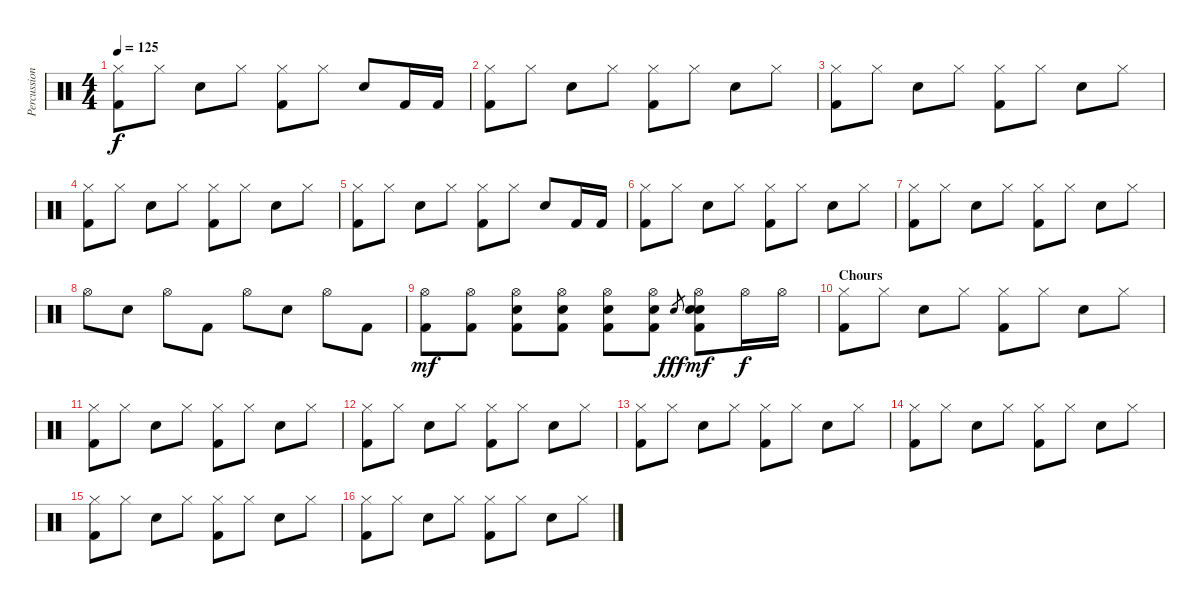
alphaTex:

\track ("Percussion" "Percussion") {instrument percussion}
\staff {score}
\articulation defaults
\ts (4 4)
\tempo 125
\clef neutral
\ks c
("Hi-Hat (closed)" "Kick (hit) 2").8{dy f} "Hi-Hat (closed)".8 "Electric Snare (hit)".8 "Hi-Hat (closed)".8 ("Hi-Hat (closed)" "Kick (hit) 2").8 "Hi-Hat (closed)".8 "Electric Snare (hit)".8 "Kick (hit) 2".16 "Kick (hit) 2".16 |
("Hi-Hat (closed)" "Kick (hit) 2").8 "Hi-Hat (closed)".8 "Electric Snare (hit)".8 "Hi-Hat (closed)".8 ("Hi-Hat (closed)" "Kick (hit) 2").8 "Hi-Hat (closed)".8 "Electric Snare (hit)".8 "Hi-Hat (closed)".8 |
("Hi-Hat (closed)" "Kick (hit) 2").8 "Hi-Hat (closed)".8 "Electric Snare (hit)".8 "Hi-Hat (closed)".8 ("Hi-Hat (closed)" "Kick (hit) 2").8 "Hi-Hat (closed)".8 "Electric Snare (hit)".8 "Hi-Hat (closed)".8 |
("Hi-Hat (closed)" "Kick (hit) 2").8 "Hi-Hat (closed)".8 "Electric Snare (hit)".8 "Hi-Hat (closed)".8 ("Hi-Hat (closed)" "Kick (hit) 2").8 "Hi-Hat (closed)".8 "Electric Snare (hit)".8 "Hi-Hat (closed)".8 |
("Hi-Hat (closed)" "Kick (hit) 2").8 "Hi-Hat (closed)".8 "Electric Snare (hit)".8 "Hi-Hat (closed)".8 ("Hi-Hat (closed)" "Kick (hit) 2").8 "Hi-Hat (closed)".8 "Electric Snare (hit)".8 "Kick (hit) 2".16 "Kick (hit) 2".16 |
("Hi-Hat (closed)" "Kick (hit) 2").8 "Hi-Hat (closed)".8 "Electric Snare (hit)".8 "Hi-Hat (closed)".8 ("Hi-Hat (closed)" "Kick (hit) 2").8 "Hi-Hat (closed)".8 "Electric Snare (hit)".8 "Hi-Hat (closed)".8 |
("Hi-Hat (closed)" "Kick (hit) 2").8 "Hi-Hat (closed)".8 "Electric Snare (hit)".8 "Hi-Hat (closed)".8 ("Hi-Hat (closed)" "Kick (hit) 2").8 "Hi-Hat (closed)".8 "Electric Snare (hit)".8 "Hi-Hat (closed)".8 |
"Hi-Hat (open)".8 "Electric Snare (hit)".8 "Hi-Hat (open)".8 "Kick (hit) 2".8 "Hi-Hat (open)".8 "Electric Snare (hit)".8 "Hi-Hat (open)".8 "Kick (hit) 2".8 |
("Hi-Hat (open)" "Kick (hit) 2").8{dy mf} ("Hi-Hat (open)" "Kick (hit) 2").8 ("Electric Snare (hit)" "Hi-Hat (open)" "Kick (hit) 2").8 ("Electric Snare (hit)" "Hi-Hat (open)" "Kick (hit) 2").8 ("Electric Snare (hit)" "Hi-Hat (open)" "Kick (hit) 2").8 ("Electric Snare (hit)" "Hi-Hat (open)" "Kick (hit) 2").8 "Electric Snare (hit)".8{gr dy fff} ("Electric Snare (hit)" "Electric Snare (hit)" "Hi-Hat (open)" "Kick (hit) 2").8{dy mf} "Hi-Hat (open)".16{dy f} "Hi-Hat (open)".16 |
\section ("" "Chours")
("Hi-Hat (closed)" "Kick (hit) 2").8 "Hi-Hat (closed)".8 "Electric Snare (hit)".8 "Hi-Hat (closed)".8 ("Hi-Hat (closed)" "Kick (hit) 2").8 "Hi-Hat (closed)".8 "Electric Snare (hit)".8 "Hi-Hat (closed)".8 |
("Hi-Hat (closed)" "Kick (hit) 2").8 "Hi-Hat (closed)".8 "Electric Snare (hit)".8 "Hi-Hat (closed)".8 ("Hi-Hat (closed)" "Kick (hit) 2").8 "Hi-Hat (closed)".8 "Electric Snare (hit)".8 "Hi-Hat (closed)".8 |
("Hi-Hat (closed)" "Kick (hit) 2").8 "Hi-Hat (closed)".8 "Electric Snare (hit)".8 "Hi-Hat (closed)".8 ("Hi-Hat (closed)" "Kick (hit) 2").8 "Hi-Hat (closed)".8 "Electric Snare (hit)".8 "Hi-Hat (closed)".8 |
("Hi-Hat (closed)" "Kick (hit) 2").8 "Hi-Hat (closed)".8 "Electric Snare (hit)".8 "Hi-Hat (closed)".8 ("Hi-Hat (closed)" "Kick (hit) 2").8 "Hi-Hat (closed)".8 "Electric Snare (hit)".8 "Hi-Hat (closed)".8 |
("Hi-Hat (closed)" "Kick (hit) 2").8 "Hi-Hat (closed)".8 "Electric Snare (hit)".8 "Hi-Hat (closed)".8 ("Hi-Hat (closed)" "Kick (hit) 2").8 "Hi-Hat (closed)".8 "Electric Snare (hit)".8 "Hi-Hat (closed)".8 |
("Hi-Hat (closed)" "Kick (hit) 2").8 "Hi-Hat (closed)".8 "Electric Snare (hit)".8 "Hi-Hat (closed)".8 ("Hi-Hat (closed)" "Kick (hit) 2").8 "Hi-Hat (closed)".8 "Electric Snare (hit)".8 "Hi-Hat (closed)".8 |
("Hi-Hat (closed)" "Kick (hit) 2").8 "Hi-Hat (closed)".8 "Electric Snare (hit)".8 "Hi-Hat (closed)".8 ("Hi-Hat (closed)" "Kick (hit) 2").8 "Hi-Hat (closed)".8 "Electric Snare (hit)".8 "Hi-Hat (closed)".8
